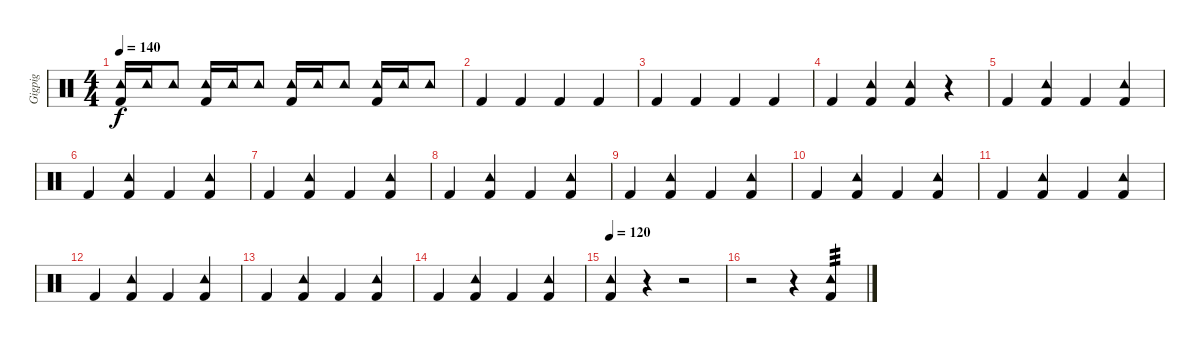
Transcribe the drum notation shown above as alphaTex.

\track ("Gigpig" "Gigpig") {instrument percussion}
\staff {score}
\articulation defaults
\ts (4 4)
\tempo 140
\clef neutral
\ks c
("Tambourine (hit)" "Kick (hit) 2").16{dy f} "Tambourine (hit)".16 "Tambourine (hit)".8 ("Tambourine (hit)" "Kick (hit) 2").16 "Tambourine (hit)".16 "Tambourine (hit)".8 ("Tambourine (hit)" "Kick (hit) 2").16 "Tambourine (hit)".16 "Tambourine (hit)".8 ("Tambourine (hit)" "Kick (hit) 2").16 "Tambourine (hit)".16 "Tambourine (hit)".8 |
"Kick (hit) 2".4 "Kick (hit) 2".4 "Kick (hit) 2".4 "Kick (hit) 2".4 |
"Kick (hit) 2".4 "Kick (hit) 2".4 "Kick (hit) 2".4 "Kick (hit) 2".4 |
"Kick (hit) 2".4 ("Tambourine (hit)" "Kick (hit) 2").4 ("Tambourine (hit)" "Kick (hit) 2").4 r.4 |
"Kick (hit) 2".4 ("Tambourine (hit)" "Kick (hit) 2").4 "Kick (hit) 2".4 ("Tambourine (hit)" "Kick (hit) 2").4 |
"Kick (hit) 2".4 ("Tambourine (hit)" "Kick (hit) 2").4 "Kick (hit) 2".4 ("Tambourine (hit)" "Kick (hit) 2").4 |
"Kick (hit) 2".4 ("Tambourine (hit)" "Kick (hit) 2").4 "Kick (hit) 2".4 ("Tambourine (hit)" "Kick (hit) 2").4 |
"Kick (hit) 2".4 ("Tambourine (hit)" "Kick (hit) 2").4 "Kick (hit) 2".4 ("Tambourine (hit)" "Kick (hit) 2").4 |
"Kick (hit) 2".4 ("Tambourine (hit)" "Kick (hit) 2").4 "Kick (hit) 2".4 ("Tambourine (hit)" "Kick (hit) 2").4 |
"Kick (hit) 2".4 ("Tambourine (hit)" "Kick (hit) 2").4 "Kick (hit) 2".4 ("Tambourine (hit)" "Kick (hit) 2").4 |
"Kick (hit) 2".4 ("Tambourine (hit)" "Kick (hit) 2").4 "Kick (hit) 2".4 ("Tambourine (hit)" "Kick (hit) 2").4 |
"Kick (hit) 2".4 ("Tambourine (hit)" "Kick (hit) 2").4 "Kick (hit) 2".4 ("Tambourine (hit)" "Kick (hit) 2").4 |
"Kick (hit) 2".4 ("Tambourine (hit)" "Kick (hit) 2").4 "Kick (hit) 2".4 ("Tambourine (hit)" "Kick (hit) 2").4 |
"Kick (hit) 2".4 ("Tambourine (hit)" "Kick (hit) 2").4 "Kick (hit) 2".4 ("Tambourine (hit)" "Kick (hit) 2").4 |
\tempo 120
("Tambourine (hit)" "Kick (hit) 2").4 r.4 r.2 |
r.2 r.4 ("Tambourine (hit)" "Kick (hit) 2").4{tp 3}
